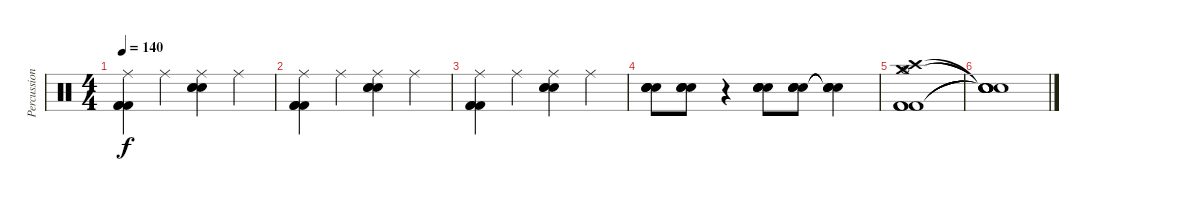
\track ("Percussion" "Percussion") {instrument percussion}
\staff {score}
\articulation defaults
\ts (4 4)
\tempo 140
\clef neutral
\ks c
("Ride (middle)" "Kick (hit) 2" "Kick (hit) 2" "Kick (hit) 2").4{dy f} "Ride (middle)".4 ("Ride (middle)" "Electric Snare (hit)" "Electric Snare (hit)" "Electric Snare (hit)").4 "Ride (middle)".4 |
("Ride (middle)" "Kick (hit) 2" "Kick (hit) 2" "Kick (hit) 2").4 "Ride (middle)".4 ("Ride (middle)" "Electric Snare (hit)" "Electric Snare (hit)" "Electric Snare (hit)").4 "Ride (middle)".4 |
("Ride (middle)" "Kick (hit) 2" "Kick (hit) 2" "Kick (hit) 2").4 "Ride (middle)".4 ("Ride (middle)" "Electric Snare (hit)" "Electric Snare (hit)" "Electric Snare (hit)").4 "Ride (middle)".4 |
("Electric Snare (hit)" "Electric Snare (hit)" "Electric Snare (hit)" "Electric Snare (hit)").8 ("Electric Snare (hit)" "Electric Snare (hit)" "Electric Snare (hit)" "Electric Snare (hit)").8 r.4 ("Electric Snare (hit)" "Electric Snare (hit)" "Electric Snare (hit)" "Electric Snare (hit)").8 ("Electric Snare (hit)" "Electric Snare (hit)" "Electric Snare (hit)" "Electric Snare (hit)").8 ("Snare (hit)"{t} "Snare (hit)"{t} "Snare (hit)"{t} "Snare (hit)"{t}).4 |
("Hi-Hat (open)" "Crash medium (hit)" "Kick (hit) 2" "Kick (hit) 2" "Kick (hit) 2" "Crash high (hit)").1 |
("Snare (hit)"{t} "Snare (hit)"{t} "Snare (hit)"{t} "Snare (hit)"{t} "Snare (hit)"{t} "Snare (hit)"{t}).1
